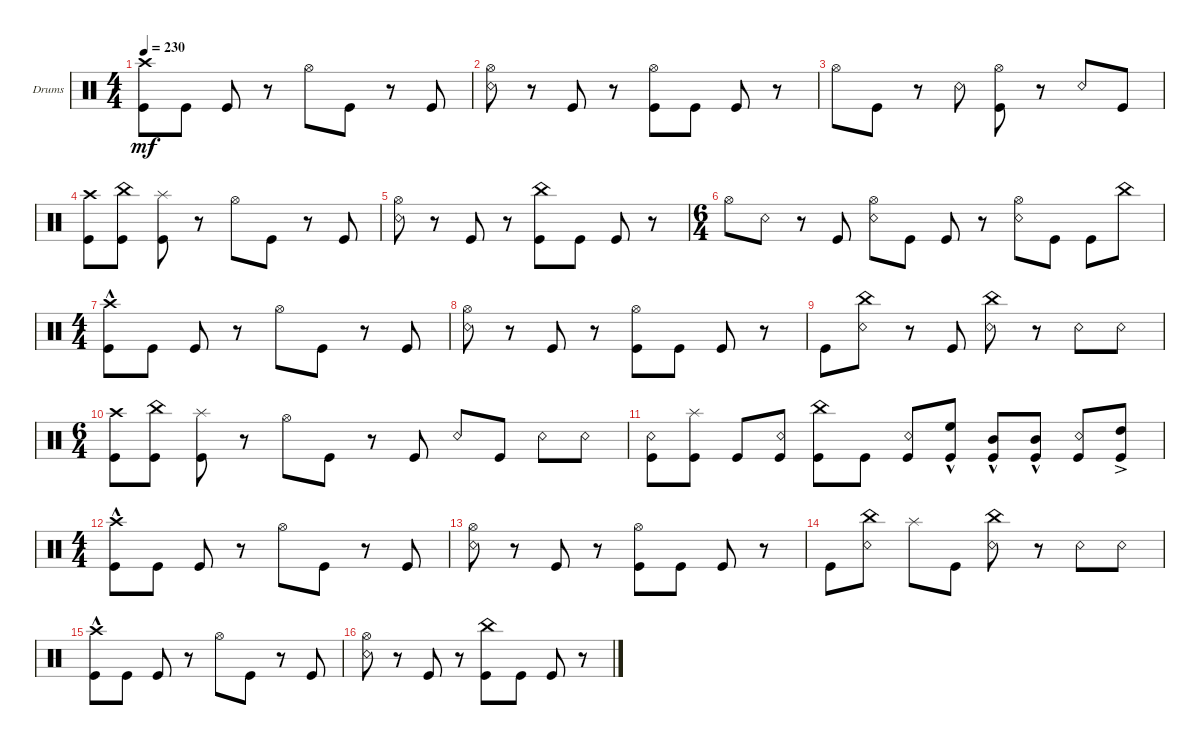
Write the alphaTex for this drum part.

\bracketExtendMode groupsimilarinstruments
\firstSystemTrackNameOrientation horizontal
\otherSystemsTrackNameOrientation horizontal
\track ("Drumkit" "Drums") {instrument percussion}
\staff {score}
\articulation defaults
\ts (4 4)
\tempo 230
\clef neutral
\ks c
("Kick (hit)" "Crash high (hit)").8{dy mf} "Kick (hit)".8 "Kick (hit)".8 r.8 "Hi-Hat (open)".8 "Kick (hit)".8 r.8 "Kick (hit)".8 |
("Snare (rim shot)" "Hi-Hat (open)").8 r.8 "Kick (hit)".8 r.8 ("Kick (hit)" "Hi-Hat (open)").8 "Kick (hit)".8 "Kick (hit)".8 r.8 |
"Hi-Hat (open)".8 "Kick (hit)".8 r.8 "Snare (rim shot)".8 ("Hi-Hat (open)" "Kick (hit)").8 r.8 "Snare (rim shot)".8 "Kick (hit)".8 |
("Kick (hit)" "Crash high (hit)").8 ("Kick (hit)" "China (hit)").8 ("Kick (hit)" "Splash (hit)").8 r.8 "Hi-Hat (open)".8 "Kick (hit)".8 r.8 "Kick (hit)".8 |
("Snare (rim shot)" "Hi-Hat (open)").8 r.8 "Kick (hit)".8 r.8 ("Kick (hit)" "China (hit)").8 "Kick (hit)".8 "Kick (hit)".8 r.8 |
\ts (6 4)
"Hi-Hat (open)".8 "Snare (rim shot)".8 r.8 "Kick (hit)".8 ("Snare (rim shot)" "Hi-Hat (open)").8 "Kick (hit)".8 "Kick (hit)".8 r.8 ("Hi-Hat (open)" "Snare (rim shot)").8 "Kick (hit)".8 "Kick (hit)".8 "China (hit)".8 |
\ts (4 4)
("Kick (hit)" "Crash high (hit)"{hac}).8 "Kick (hit)".8 "Kick (hit)".8 r.8 "Hi-Hat (open)".8 "Kick (hit)".8 r.8 "Kick (hit)".8 |
("Snare (rim shot)" "Hi-Hat (open)").8 r.8 "Kick (hit)".8 r.8 ("Kick (hit)" "Hi-Hat (open)").8 "Kick (hit)".8 "Kick (hit)".8 r.8 |
"Kick (hit)".8 ("Snare (rim shot)" "China (hit)").8 r.8 "Kick (hit)".8 ("Snare (rim shot)" "China (hit)").8 r.8 "Snare (rim shot)".8 "Snare (rim shot)".8 |
\ts (6 4)
("Kick (hit)" "Crash high (hit)").8 ("Kick (hit)" "China (hit)").8 ("Kick (hit)" "Splash (hit)").8 r.8 "Hi-Hat (open)".8 "Kick (hit)".8 r.8 "Kick (hit)".8 "Snare (rim shot)".8 "Kick (hit)".8 "Snare (rim shot)".8 "Snare (rim shot)".8 |
("Snare (rim shot)" "Kick (hit)").8 ("Kick (hit)" "Splash (hit)").8 "Kick (hit)".8 ("Kick (hit)" "Snare (rim shot)").8 ("Kick (hit)" "China (hit)").8 "Kick (hit)".8 ("Kick (hit)" "Snare (rim shot)").8 ("Kick (hit)" "High Floor Tom (hit)"{hac}).8 ("Kick (hit)" "Mid Tom (hit)"{hac}).8 ("Kick (hit)" "Mid Tom (hit)"{hac}).8 ("Kick (hit)" "Snare (rim shot)").8 ("Kick (hit)" "High Tom (hit)"{ac}).8 |
\ts (4 4)
("Kick (hit)" "Crash high (hit)"{hac}).8 "Kick (hit)".8 "Kick (hit)".8 r.8 "Hi-Hat (open)".8 "Kick (hit)".8 r.8 "Kick (hit)".8 |
("Snare (rim shot)" "Hi-Hat (open)").8 r.8 "Kick (hit)".8 r.8 ("Kick (hit)" "Hi-Hat (open)").8 "Kick (hit)".8 "Kick (hit)".8 r.8 |
"Kick (hit)".8 ("Snare (rim shot)" "China (hit)").8 "Splash (hit)".8 "Kick (hit)".8 ("Snare (rim shot)" "China (hit)").8 r.8 "Snare (rim shot)".8 "Snare (rim shot)".8 |
("Kick (hit)" "Crash high (hit)"{hac}).8 "Kick (hit)".8 "Kick (hit)".8 r.8 "Hi-Hat (open)".8 "Kick (hit)".8 r.8 "Kick (hit)".8 |
("Snare (rim shot)" "Hi-Hat (open)").8 r.8 "Kick (hit)".8 r.8 ("Kick (hit)" "China (hit)").8 "Kick (hit)".8 "Kick (hit)".8 r.8
